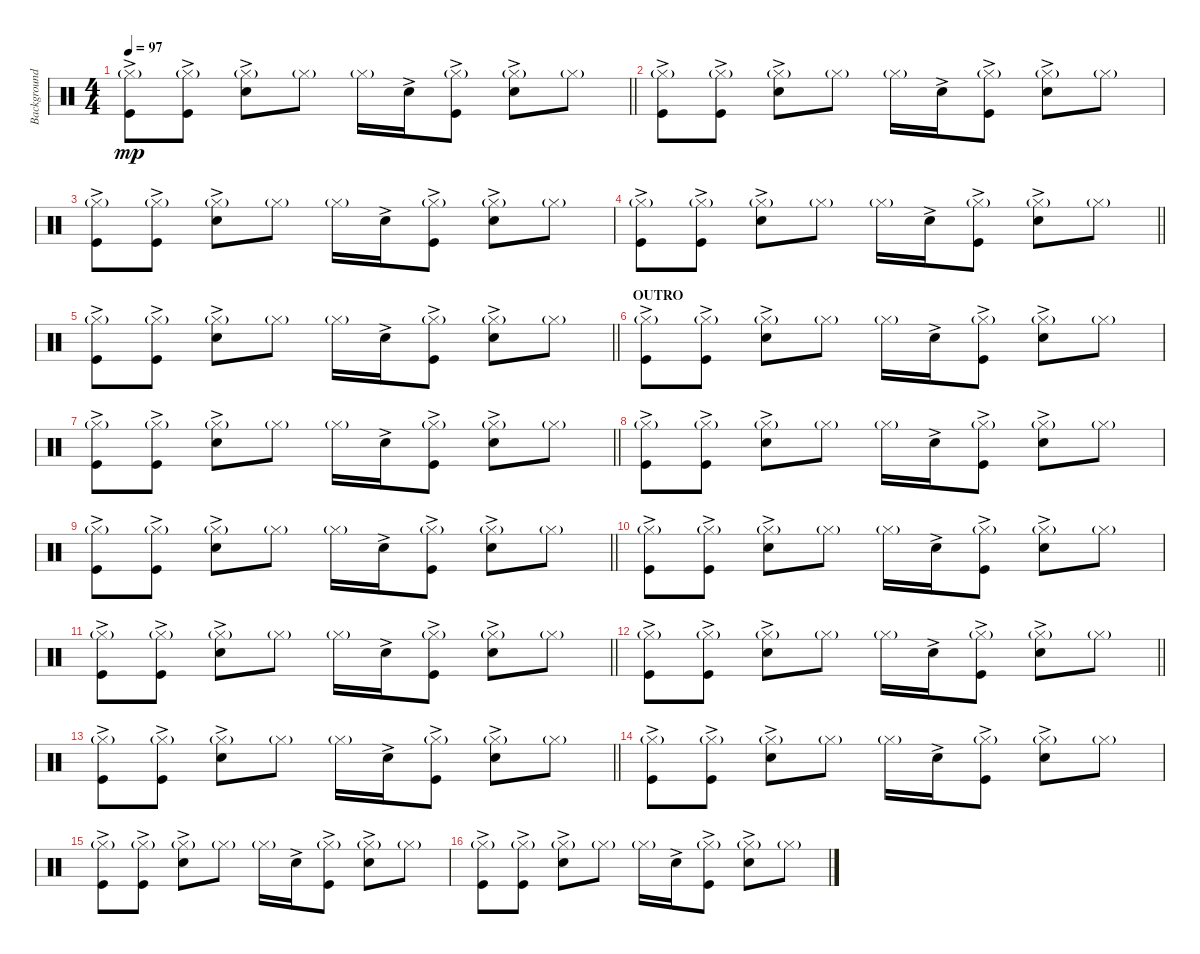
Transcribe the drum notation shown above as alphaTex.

\track ("Background Drums" "Background") {instrument percussion}
\staff {score}
\articulation defaults
\ts (4 4)
\tempo 97
\clef neutral
\barLineRight lightlight
\ks c
("Hi-Hat (closed)"{g} "Kick (hit)"{ac}).8{dy mp} ("Hi-Hat (closed)"{g} "Kick (hit)"{ac}).8 ("Hi-Hat (closed)"{g} "Hand Clap (hit)"{ac}).8 "Hi-Hat (closed)"{g}.8 "Hi-Hat (closed)"{g}.16 "Hand Clap (hit)"{ac}.16 ("Hi-Hat (closed)"{g} "Kick (hit)"{ac}).8 ("Hi-Hat (closed)"{g} "Hand Clap (hit)"{ac}).8 "Hi-Hat (closed)"{g}.8 |
("Hi-Hat (closed)"{g} "Kick (hit)"{ac}).8 ("Hi-Hat (closed)"{g} "Kick (hit)"{ac}).8 ("Hi-Hat (closed)"{g} "Hand Clap (hit)"{ac}).8 "Hi-Hat (closed)"{g}.8 "Hi-Hat (closed)"{g}.16 "Hand Clap (hit)"{ac}.16 ("Hi-Hat (closed)"{g} "Kick (hit)"{ac}).8 ("Hi-Hat (closed)"{g} "Hand Clap (hit)"{ac}).8 "Hi-Hat (closed)"{g}.8 |
("Hi-Hat (closed)"{g} "Kick (hit)"{ac}).8 ("Hi-Hat (closed)"{g} "Kick (hit)"{ac}).8 ("Hi-Hat (closed)"{g} "Hand Clap (hit)"{ac}).8 "Hi-Hat (closed)"{g}.8 "Hi-Hat (closed)"{g}.16 "Hand Clap (hit)"{ac}.16 ("Hi-Hat (closed)"{g} "Kick (hit)"{ac}).8 ("Hi-Hat (closed)"{g} "Hand Clap (hit)"{ac}).8 "Hi-Hat (closed)"{g}.8 |
\barLineRight lightlight
("Hi-Hat (closed)"{g} "Kick (hit)"{ac}).8 ("Hi-Hat (closed)"{g} "Kick (hit)"{ac}).8 ("Hi-Hat (closed)"{g} "Hand Clap (hit)"{ac}).8 "Hi-Hat (closed)"{g}.8 "Hi-Hat (closed)"{g}.16 "Hand Clap (hit)"{ac}.16 ("Hi-Hat (closed)"{g} "Kick (hit)"{ac}).8 ("Hi-Hat (closed)"{g} "Hand Clap (hit)"{ac}).8 "Hi-Hat (closed)"{g}.8 |
\barLineRight lightlight
("Hi-Hat (closed)"{g} "Kick (hit)"{ac}).8 ("Hi-Hat (closed)"{g} "Kick (hit)"{ac}).8 ("Hi-Hat (closed)"{g} "Hand Clap (hit)"{ac}).8 "Hi-Hat (closed)"{g}.8 "Hi-Hat (closed)"{g}.16 "Hand Clap (hit)"{ac}.16 ("Hi-Hat (closed)"{g} "Kick (hit)"{ac}).8 ("Hi-Hat (closed)"{g} "Hand Clap (hit)"{ac}).8 "Hi-Hat (closed)"{g}.8 |
\section ("" "OUTRO")
("Hi-Hat (closed)"{g} "Kick (hit)"{ac}).8 ("Hi-Hat (closed)"{g} "Kick (hit)"{ac}).8 ("Hi-Hat (closed)"{g} "Hand Clap (hit)"{ac}).8 "Hi-Hat (closed)"{g}.8 "Hi-Hat (closed)"{g}.16 "Hand Clap (hit)"{ac}.16 ("Hi-Hat (closed)"{g} "Kick (hit)"{ac}).8 ("Hi-Hat (closed)"{g} "Hand Clap (hit)"{ac}).8 "Hi-Hat (closed)"{g}.8 |
\barLineRight lightlight
("Hi-Hat (closed)"{g} "Kick (hit)"{ac}).8 ("Hi-Hat (closed)"{g} "Kick (hit)"{ac}).8 ("Hi-Hat (closed)"{g} "Hand Clap (hit)"{ac}).8 "Hi-Hat (closed)"{g}.8 "Hi-Hat (closed)"{g}.16 "Hand Clap (hit)"{ac}.16 ("Hi-Hat (closed)"{g} "Kick (hit)"{ac}).8 ("Hi-Hat (closed)"{g} "Hand Clap (hit)"{ac}).8 "Hi-Hat (closed)"{g}.8 |
("Hi-Hat (closed)"{g} "Kick (hit)"{ac}).8 ("Hi-Hat (closed)"{g} "Kick (hit)"{ac}).8 ("Hi-Hat (closed)"{g} "Hand Clap (hit)"{ac}).8 "Hi-Hat (closed)"{g}.8 "Hi-Hat (closed)"{g}.16 "Hand Clap (hit)"{ac}.16 ("Hi-Hat (closed)"{g} "Kick (hit)"{ac}).8 ("Hi-Hat (closed)"{g} "Hand Clap (hit)"{ac}).8 "Hi-Hat (closed)"{g}.8 |
\barLineRight lightlight
("Hi-Hat (closed)"{g} "Kick (hit)"{ac}).8 ("Hi-Hat (closed)"{g} "Kick (hit)"{ac}).8 ("Hi-Hat (closed)"{g} "Hand Clap (hit)"{ac}).8 "Hi-Hat (closed)"{g}.8 "Hi-Hat (closed)"{g}.16 "Hand Clap (hit)"{ac}.16 ("Hi-Hat (closed)"{g} "Kick (hit)"{ac}).8 ("Hi-Hat (closed)"{g} "Hand Clap (hit)"{ac}).8 "Hi-Hat (closed)"{g}.8 |
("Hi-Hat (closed)"{g} "Kick (hit)"{ac}).8 ("Hi-Hat (closed)"{g} "Kick (hit)"{ac}).8 ("Hi-Hat (closed)"{g} "Hand Clap (hit)"{ac}).8 "Hi-Hat (closed)"{g}.8 "Hi-Hat (closed)"{g}.16 "Hand Clap (hit)"{ac}.16 ("Hi-Hat (closed)"{g} "Kick (hit)"{ac}).8 ("Hi-Hat (closed)"{g} "Hand Clap (hit)"{ac}).8 "Hi-Hat (closed)"{g}.8 |
\barLineRight lightlight
("Hi-Hat (closed)"{g} "Kick (hit)"{ac}).8 ("Hi-Hat (closed)"{g} "Kick (hit)"{ac}).8 ("Hi-Hat (closed)"{g} "Hand Clap (hit)"{ac}).8 "Hi-Hat (closed)"{g}.8 "Hi-Hat (closed)"{g}.16 "Hand Clap (hit)"{ac}.16 ("Hi-Hat (closed)"{g} "Kick (hit)"{ac}).8 ("Hi-Hat (closed)"{g} "Hand Clap (hit)"{ac}).8 "Hi-Hat (closed)"{g}.8 |
\barLineRight lightlight
("Hi-Hat (closed)"{g} "Kick (hit)"{ac}).8 ("Hi-Hat (closed)"{g} "Kick (hit)"{ac}).8 ("Hi-Hat (closed)"{g} "Hand Clap (hit)"{ac}).8 "Hi-Hat (closed)"{g}.8 "Hi-Hat (closed)"{g}.16 "Hand Clap (hit)"{ac}.16 ("Hi-Hat (closed)"{g} "Kick (hit)"{ac}).8 ("Hi-Hat (closed)"{g} "Hand Clap (hit)"{ac}).8 "Hi-Hat (closed)"{g}.8 |
\barLineRight lightlight
("Hi-Hat (closed)"{g} "Kick (hit)"{ac}).8 ("Hi-Hat (closed)"{g} "Kick (hit)"{ac}).8 ("Hi-Hat (closed)"{g} "Hand Clap (hit)"{ac}).8 "Hi-Hat (closed)"{g}.8 "Hi-Hat (closed)"{g}.16 "Hand Clap (hit)"{ac}.16 ("Hi-Hat (closed)"{g} "Kick (hit)"{ac}).8 ("Hi-Hat (closed)"{g} "Hand Clap (hit)"{ac}).8 "Hi-Hat (closed)"{g}.8 |
("Hi-Hat (closed)"{g} "Kick (hit)"{ac}).8 ("Hi-Hat (closed)"{g} "Kick (hit)"{ac}).8 ("Hi-Hat (closed)"{g} "Hand Clap (hit)"{ac}).8 "Hi-Hat (closed)"{g}.8 "Hi-Hat (closed)"{g}.16 "Hand Clap (hit)"{ac}.16 ("Hi-Hat (closed)"{g} "Kick (hit)"{ac}).8 ("Hi-Hat (closed)"{g} "Hand Clap (hit)"{ac}).8 "Hi-Hat (closed)"{g}.8 |
("Hi-Hat (closed)"{g} "Kick (hit)"{ac}).8 ("Hi-Hat (closed)"{g} "Kick (hit)"{ac}).8 ("Hi-Hat (closed)"{g} "Hand Clap (hit)"{ac}).8 "Hi-Hat (closed)"{g}.8 "Hi-Hat (closed)"{g}.16 "Hand Clap (hit)"{ac}.16 ("Hi-Hat (closed)"{g} "Kick (hit)"{ac}).8 ("Hi-Hat (closed)"{g} "Hand Clap (hit)"{ac}).8 "Hi-Hat (closed)"{g}.8 |
("Hi-Hat (closed)"{g} "Kick (hit)"{ac}).8 ("Hi-Hat (closed)"{g} "Kick (hit)"{ac}).8 ("Hi-Hat (closed)"{g} "Hand Clap (hit)"{ac}).8 "Hi-Hat (closed)"{g}.8 "Hi-Hat (closed)"{g}.16 "Hand Clap (hit)"{ac}.16 ("Hi-Hat (closed)"{g} "Kick (hit)"{ac}).8 ("Hi-Hat (closed)"{g} "Hand Clap (hit)"{ac}).8 "Hi-Hat (closed)"{g}.8
